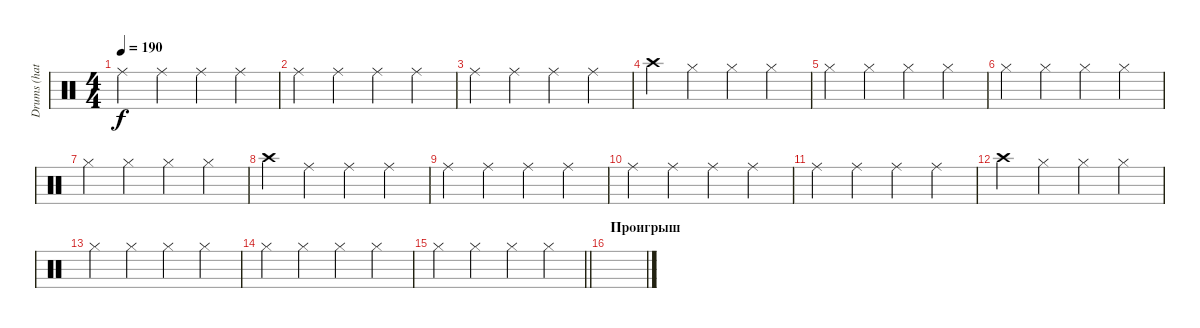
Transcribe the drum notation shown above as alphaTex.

\track ("Drums (hats)" "Drums (hat") {instrument percussion}
\staff {score}
\articulation defaults
\ts (4 4)
\tempo 190
\clef neutral
\ks c "Ride (middle)".4{dy f} "Ride (middle)".4 "Ride (middle)".4 "Ride (middle)".4
|
"Ride (middle)".4 "Ride (middle)".4 "Ride (middle)".4 "Ride (middle)".4 |
"Ride (middle)".4 "Ride (middle)".4 "Ride (middle)".4 "Ride (middle)".4 |
"Crash high (hit)".4 "Hi-Hat (closed)".4 "Hi-Hat (closed)".4 "Hi-Hat (closed)".4 |
"Hi-Hat (closed)".4 "Hi-Hat (closed)".4 "Hi-Hat (closed)".4 "Hi-Hat (closed)".4 |
"Hi-Hat (closed)".4 "Hi-Hat (closed)".4 "Hi-Hat (closed)".4 "Hi-Hat (closed)".4 |
"Hi-Hat (closed)".4 "Hi-Hat (closed)".4 "Hi-Hat (closed)".4 "Hi-Hat (closed)".4 |
"Crash high (hit)".4 "Ride (middle)".4 "Ride (middle)".4 "Ride (middle)".4 |
"Ride (middle)".4 "Ride (middle)".4 "Ride (middle)".4 "Ride (middle)".4 |
"Ride (middle)".4 "Ride (middle)".4 "Ride (middle)".4 "Ride (middle)".4 |
"Ride (middle)".4 "Ride (middle)".4 "Ride (middle)".4 "Ride (middle)".4 |
"Crash high (hit)".4 "Hi-Hat (closed)".4 "Hi-Hat (closed)".4 "Hi-Hat (closed)".4 |
"Hi-Hat (closed)".4 "Hi-Hat (closed)".4 "Hi-Hat (closed)".4 "Hi-Hat (closed)".4 |
"Hi-Hat (closed)".4 "Hi-Hat (closed)".4 "Hi-Hat (closed)".4 "Hi-Hat (closed)".4 |
\barLineRight lightlight "Hi-Hat (closed)".4 "Hi-Hat (closed)".4 "Hi-Hat (closed)".4 "Hi-Hat (closed)".4
|
\section ("" "Проигрыш")
